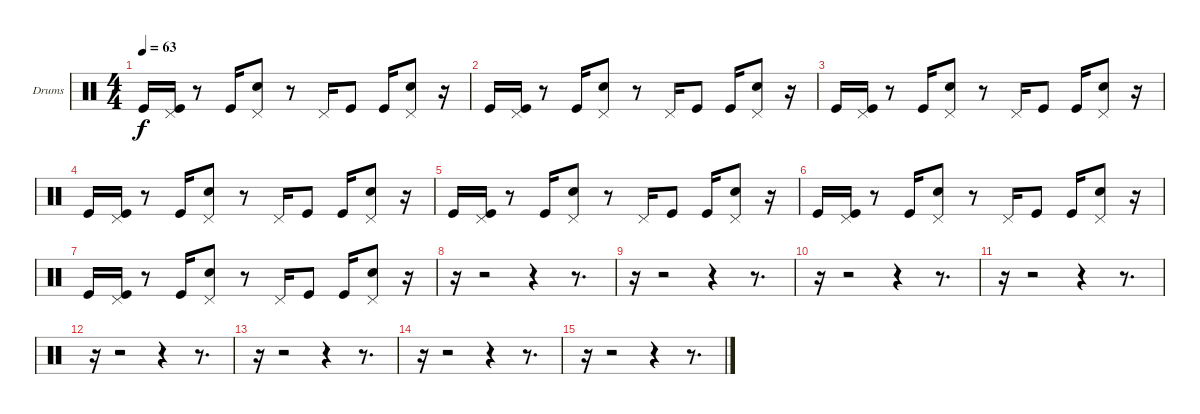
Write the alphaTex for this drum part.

\bracketExtendMode groupsimilarinstruments
\firstSystemTrackNameOrientation horizontal
\otherSystemsTrackNameOrientation horizontal
\track ("Drumkit" "Drums") {instrument percussion}
\staff {score}
\articulation defaults
\ts (4 4)
\tempo 63
\clef neutral
\ks c "Kick (hit)".16{dy f}
("Pedal Hi-Hat (hit)" "Kick (hit)").16 r.8 "Kick (hit)".16 ("Pedal Hi-Hat (hit)" "Snare (hit) 2").8 r.8 "Pedal Hi-Hat (hit)".16 "Kick (hit)".8 "Kick (hit)".16 ("Pedal Hi-Hat (hit)" "Snare (hit) 2").8 r.16 |
"Kick (hit)".16 ("Pedal Hi-Hat (hit)" "Kick (hit)").16 r.8 "Kick (hit)".16 ("Pedal Hi-Hat (hit)" "Snare (hit) 2").8 r.8 "Pedal Hi-Hat (hit)".16 "Kick (hit)".8 "Kick (hit)".16 ("Pedal Hi-Hat (hit)" "Snare (hit) 2").8 r.16 |
"Kick (hit)".16 ("Pedal Hi-Hat (hit)" "Kick (hit)").16 r.8 "Kick (hit)".16 ("Pedal Hi-Hat (hit)" "Snare (hit) 2").8 r.8 "Pedal Hi-Hat (hit)".16 "Kick (hit)".8 "Kick (hit)".16 ("Pedal Hi-Hat (hit)" "Snare (hit) 2").8 r.16 |
"Kick (hit)".16 ("Pedal Hi-Hat (hit)" "Kick (hit)").16 r.8 "Kick (hit)".16 ("Pedal Hi-Hat (hit)" "Snare (hit) 2").8 r.8 "Pedal Hi-Hat (hit)".16 "Kick (hit)".8 "Kick (hit)".16 ("Pedal Hi-Hat (hit)" "Snare (hit) 2").8 r.16 |
"Kick (hit)".16 ("Pedal Hi-Hat (hit)" "Kick (hit)").16 r.8 "Kick (hit)".16 ("Pedal Hi-Hat (hit)" "Snare (hit) 2").8 r.8 "Pedal Hi-Hat (hit)".16 "Kick (hit)".8 "Kick (hit)".16 ("Pedal Hi-Hat (hit)" "Snare (hit) 2").8 r.16 |
"Kick (hit)".16 ("Pedal Hi-Hat (hit)" "Kick (hit)").16 r.8 "Kick (hit)".16 ("Pedal Hi-Hat (hit)" "Snare (hit) 2").8 r.8 "Pedal Hi-Hat (hit)".16 "Kick (hit)".8 "Kick (hit)".16 ("Pedal Hi-Hat (hit)" "Snare (hit) 2").8 r.16 |
"Kick (hit)".16 ("Pedal Hi-Hat (hit)" "Kick (hit)").16 r.8 "Kick (hit)".16 ("Pedal Hi-Hat (hit)" "Snare (hit) 2").8 r.8 "Pedal Hi-Hat (hit)".16 "Kick (hit)".8 "Kick (hit)".16 ("Pedal Hi-Hat (hit)" "Snare (hit) 2").8 r.16 |
r.16 r.2 r.4 r.8{d} |
r.16 r.2 r.4 r.8{d} |
r.16 r.2 r.4 r.8{d} |
r.16 r.2 r.4 r.8{d} |
r.16 r.2 r.4 r.8{d} |
r.16 r.2 r.4 r.8{d} |
r.16 r.2 r.4 r.8{d} |
r.16 r.2 r.4 r.8{d}
